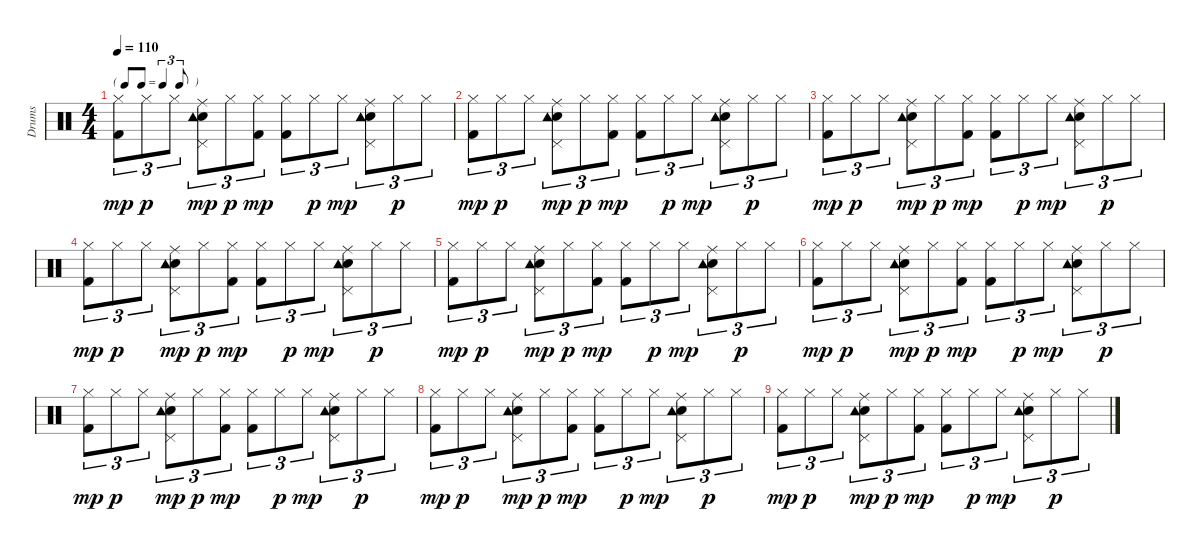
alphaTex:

\track ("Drums" "Drums") {instrument percussion}
\staff {score}
\articulation defaults
\ts (4 4)
\tf triplet8th
\tempo 110
\clef neutral
\ks c
("Kick (hit) 2" "Hi-Hat (closed)").8{tu (3 2) dy mp} "Hi-Hat (closed)".8{tu (3 2) dy p} "Hi-Hat (closed)".8{tu (3 2)} ("Snare (hit) 2" "Pedal Hi-Hat (hit)" "Ride (middle)" "Tambourine (hit)").8{tu (3 2) dy mp} "Hi-Hat (closed)".8{tu (3 2) dy p} ("Hi-Hat (closed)" "Kick (hit) 2").8{tu (3 2) dy mp} ("Kick (hit) 2" "Hi-Hat (closed)").8{tu (3 2)} "Hi-Hat (closed)".8{tu (3 2) dy p} "Hi-Hat (closed)".8{tu (3 2) dy mp} ("Snare (hit) 2" "Pedal Hi-Hat (hit)" "Ride (middle)" "Tambourine (hit)").8{tu (3 2)} "Hi-Hat (closed)".8{tu (3 2) dy p} "Hi-Hat (closed)".8{tu (3 2)} |
("Kick (hit) 2" "Hi-Hat (closed)").8{tu (3 2) dy mp} "Hi-Hat (closed)".8{tu (3 2) dy p} "Hi-Hat (closed)".8{tu (3 2)} ("Snare (hit) 2" "Pedal Hi-Hat (hit)" "Ride (middle)" "Tambourine (hit)").8{tu (3 2) dy mp} "Hi-Hat (closed)".8{tu (3 2) dy p} ("Hi-Hat (closed)" "Kick (hit) 2").8{tu (3 2) dy mp} ("Kick (hit) 2" "Hi-Hat (closed)").8{tu (3 2)} "Hi-Hat (closed)".8{tu (3 2) dy p} "Hi-Hat (closed)".8{tu (3 2) dy mp} ("Snare (hit) 2" "Pedal Hi-Hat (hit)" "Ride (middle)" "Tambourine (hit)").8{tu (3 2)} "Hi-Hat (closed)".8{tu (3 2) dy p} "Hi-Hat (closed)".8{tu (3 2)} |
("Kick (hit) 2" "Hi-Hat (closed)").8{tu (3 2) dy mp} "Hi-Hat (closed)".8{tu (3 2) dy p} "Hi-Hat (closed)".8{tu (3 2)} ("Snare (hit) 2" "Pedal Hi-Hat (hit)" "Ride (middle)" "Tambourine (hit)").8{tu (3 2) dy mp} "Hi-Hat (closed)".8{tu (3 2) dy p} ("Hi-Hat (closed)" "Kick (hit) 2").8{tu (3 2) dy mp} ("Kick (hit) 2" "Hi-Hat (closed)").8{tu (3 2)} "Hi-Hat (closed)".8{tu (3 2) dy p} "Hi-Hat (closed)".8{tu (3 2) dy mp} ("Snare (hit) 2" "Pedal Hi-Hat (hit)" "Ride (middle)" "Tambourine (hit)").8{tu (3 2)} "Hi-Hat (closed)".8{tu (3 2) dy p} "Hi-Hat (closed)".8{tu (3 2)} |
("Kick (hit) 2" "Hi-Hat (closed)").8{tu (3 2) dy mp} "Hi-Hat (closed)".8{tu (3 2) dy p} "Hi-Hat (closed)".8{tu (3 2)} ("Snare (hit) 2" "Pedal Hi-Hat (hit)" "Ride (middle)" "Tambourine (hit)").8{tu (3 2) dy mp} "Hi-Hat (closed)".8{tu (3 2) dy p} ("Hi-Hat (closed)" "Kick (hit) 2").8{tu (3 2) dy mp} ("Kick (hit) 2" "Hi-Hat (closed)").8{tu (3 2)} "Hi-Hat (closed)".8{tu (3 2) dy p} "Hi-Hat (closed)".8{tu (3 2) dy mp} ("Snare (hit) 2" "Pedal Hi-Hat (hit)" "Ride (middle)" "Tambourine (hit)").8{tu (3 2)} "Hi-Hat (closed)".8{tu (3 2) dy p} "Hi-Hat (closed)".8{tu (3 2)} |
("Kick (hit) 2" "Hi-Hat (closed)").8{tu (3 2) dy mp} "Hi-Hat (closed)".8{tu (3 2) dy p} "Hi-Hat (closed)".8{tu (3 2)} ("Snare (hit) 2" "Pedal Hi-Hat (hit)" "Ride (middle)" "Tambourine (hit)").8{tu (3 2) dy mp} "Hi-Hat (closed)".8{tu (3 2) dy p} ("Hi-Hat (closed)" "Kick (hit) 2").8{tu (3 2) dy mp} ("Kick (hit) 2" "Hi-Hat (closed)").8{tu (3 2)} "Hi-Hat (closed)".8{tu (3 2) dy p} "Hi-Hat (closed)".8{tu (3 2) dy mp} ("Snare (hit) 2" "Pedal Hi-Hat (hit)" "Ride (middle)" "Tambourine (hit)").8{tu (3 2)} "Hi-Hat (closed)".8{tu (3 2) dy p} "Hi-Hat (closed)".8{tu (3 2)} |
("Kick (hit) 2" "Hi-Hat (closed)").8{tu (3 2) dy mp} "Hi-Hat (closed)".8{tu (3 2) dy p} "Hi-Hat (closed)".8{tu (3 2)} ("Snare (hit) 2" "Pedal Hi-Hat (hit)" "Ride (middle)" "Tambourine (hit)").8{tu (3 2) dy mp} "Hi-Hat (closed)".8{tu (3 2) dy p} ("Hi-Hat (closed)" "Kick (hit) 2").8{tu (3 2) dy mp} ("Kick (hit) 2" "Hi-Hat (closed)").8{tu (3 2)} "Hi-Hat (closed)".8{tu (3 2) dy p} "Hi-Hat (closed)".8{tu (3 2) dy mp} ("Snare (hit) 2" "Pedal Hi-Hat (hit)" "Ride (middle)" "Tambourine (hit)").8{tu (3 2)} "Hi-Hat (closed)".8{tu (3 2) dy p} "Hi-Hat (closed)".8{tu (3 2)} |
("Kick (hit) 2" "Hi-Hat (closed)").8{tu (3 2) dy mp} "Hi-Hat (closed)".8{tu (3 2) dy p} "Hi-Hat (closed)".8{tu (3 2)} ("Snare (hit) 2" "Pedal Hi-Hat (hit)" "Ride (middle)" "Tambourine (hit)").8{tu (3 2) dy mp} "Hi-Hat (closed)".8{tu (3 2) dy p} ("Hi-Hat (closed)" "Kick (hit) 2").8{tu (3 2) dy mp} ("Kick (hit) 2" "Hi-Hat (closed)").8{tu (3 2)} "Hi-Hat (closed)".8{tu (3 2) dy p} "Hi-Hat (closed)".8{tu (3 2) dy mp} ("Snare (hit) 2" "Pedal Hi-Hat (hit)" "Ride (middle)" "Tambourine (hit)").8{tu (3 2)} "Hi-Hat (closed)".8{tu (3 2) dy p} "Hi-Hat (closed)".8{tu (3 2)} |
("Kick (hit) 2" "Hi-Hat (closed)").8{tu (3 2) dy mp} "Hi-Hat (closed)".8{tu (3 2) dy p} "Hi-Hat (closed)".8{tu (3 2)} ("Snare (hit) 2" "Pedal Hi-Hat (hit)" "Ride (middle)" "Tambourine (hit)").8{tu (3 2) dy mp} "Hi-Hat (closed)".8{tu (3 2) dy p} ("Hi-Hat (closed)" "Kick (hit) 2").8{tu (3 2) dy mp} ("Kick (hit) 2" "Hi-Hat (closed)").8{tu (3 2)} "Hi-Hat (closed)".8{tu (3 2) dy p} "Hi-Hat (closed)".8{tu (3 2) dy mp} ("Snare (hit) 2" "Pedal Hi-Hat (hit)" "Ride (middle)" "Tambourine (hit)").8{tu (3 2)} "Hi-Hat (closed)".8{tu (3 2) dy p} "Hi-Hat (closed)".8{tu (3 2)} |
("Kick (hit) 2" "Hi-Hat (closed)").8{tu (3 2) dy mp} "Hi-Hat (closed)".8{tu (3 2) dy p} "Hi-Hat (closed)".8{tu (3 2)} ("Snare (hit) 2" "Pedal Hi-Hat (hit)" "Ride (middle)" "Tambourine (hit)").8{tu (3 2) dy mp} "Hi-Hat (closed)".8{tu (3 2) dy p} ("Hi-Hat (closed)" "Kick (hit) 2").8{tu (3 2) dy mp} ("Kick (hit) 2" "Hi-Hat (closed)").8{tu (3 2)} "Hi-Hat (closed)".8{tu (3 2) dy p} "Hi-Hat (closed)".8{tu (3 2) dy mp} ("Snare (hit) 2" "Pedal Hi-Hat (hit)" "Ride (middle)" "Tambourine (hit)").8{tu (3 2)} "Hi-Hat (closed)".8{tu (3 2) dy p} "Hi-Hat (closed)".8{tu (3 2)}
